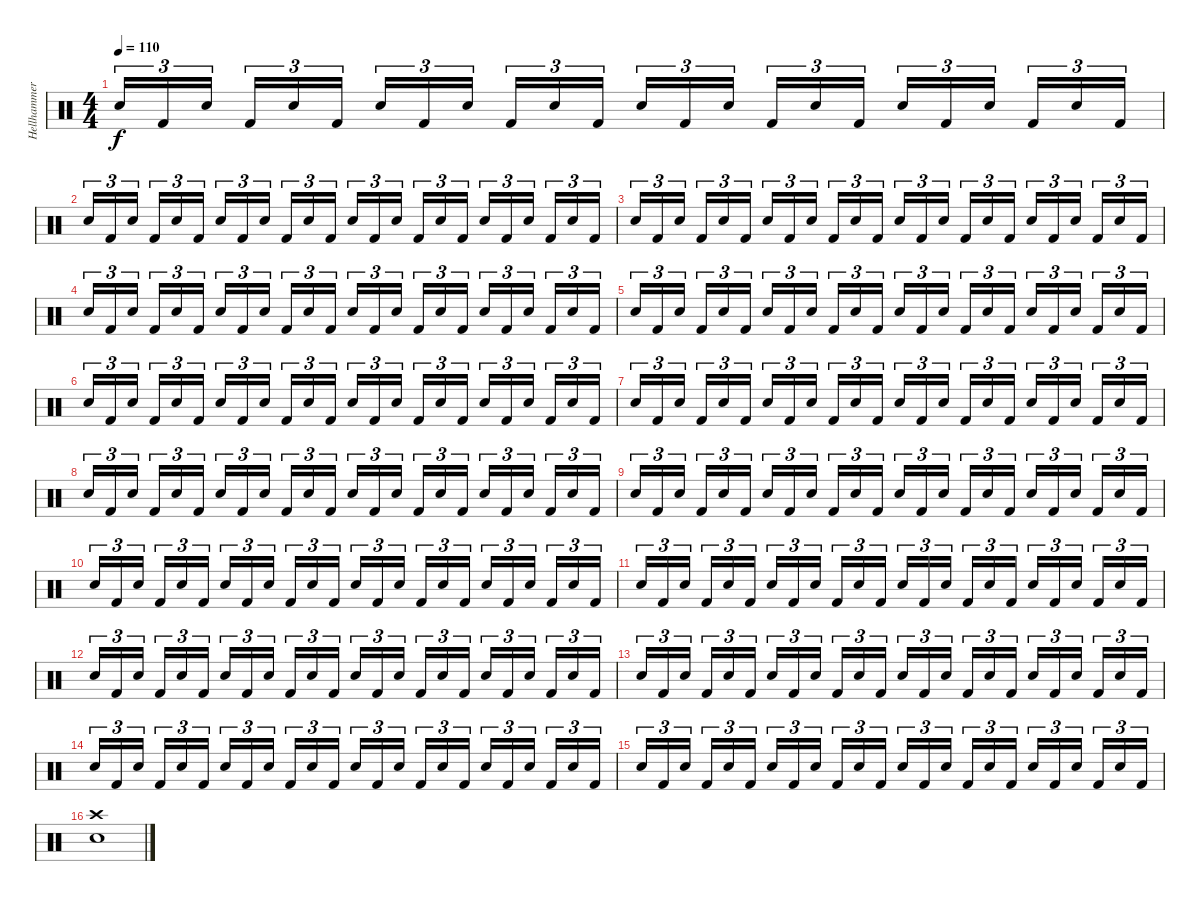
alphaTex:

\track ("Hellhammer" "Hellhammer") {instrument percussion}
\staff {score}
\articulation defaults
\ts (4 4)
\tempo 110
\clef neutral
\ks c "Electric Snare (hit)".16{tu (3 2) dy f} "Kick (hit) 2".16{tu (3 2)} "Electric Snare (hit)".16{tu (3 2)} "Kick (hit) 2".16{tu (3 2)} "Electric Snare (hit)".16{tu (3 2)} "Kick (hit) 2".16{tu (3 2)} "Electric Snare (hit)".16{tu (3 2)} "Kick (hit) 2".16{tu (3 2)} "Electric Snare (hit)".16{tu (3 2)} "Kick (hit) 2".16{tu (3 2)} "Electric Snare (hit)".16{tu (3 2)} "Kick (hit) 2".16{tu (3 2)} "Electric Snare (hit)".16{tu (3 2)} "Kick (hit) 2".16{tu (3 2)} "Electric Snare (hit)".16{tu (3 2)} "Kick (hit) 2".16{tu (3 2)} "Electric Snare (hit)".16{tu (3 2)} "Kick (hit) 2".16{tu (3 2)} "Electric Snare (hit)".16{tu (3 2)} "Kick (hit) 2".16{tu (3 2)} "Electric Snare (hit)".16{tu (3 2)} "Kick (hit) 2".16{tu (3 2)} "Electric Snare (hit)".16{tu (3 2)} "Kick (hit) 2".16{tu (3 2)}
|
"Electric Snare (hit)".16{tu (3 2)} "Kick (hit) 2".16{tu (3 2)} "Electric Snare (hit)".16{tu (3 2)} "Kick (hit) 2".16{tu (3 2)} "Electric Snare (hit)".16{tu (3 2)} "Kick (hit) 2".16{tu (3 2)} "Electric Snare (hit)".16{tu (3 2)} "Kick (hit) 2".16{tu (3 2)} "Electric Snare (hit)".16{tu (3 2)} "Kick (hit) 2".16{tu (3 2)} "Electric Snare (hit)".16{tu (3 2)} "Kick (hit) 2".16{tu (3 2)} "Electric Snare (hit)".16{tu (3 2)} "Kick (hit) 2".16{tu (3 2)} "Electric Snare (hit)".16{tu (3 2)} "Kick (hit) 2".16{tu (3 2)} "Electric Snare (hit)".16{tu (3 2)} "Kick (hit) 2".16{tu (3 2)} "Electric Snare (hit)".16{tu (3 2)} "Kick (hit) 2".16{tu (3 2)} "Electric Snare (hit)".16{tu (3 2)} "Kick (hit) 2".16{tu (3 2)} "Electric Snare (hit)".16{tu (3 2)} "Kick (hit) 2".16{tu (3 2)} |
"Electric Snare (hit)".16{tu (3 2)} "Kick (hit) 2".16{tu (3 2)} "Electric Snare (hit)".16{tu (3 2)} "Kick (hit) 2".16{tu (3 2)} "Electric Snare (hit)".16{tu (3 2)} "Kick (hit) 2".16{tu (3 2)} "Electric Snare (hit)".16{tu (3 2)} "Kick (hit) 2".16{tu (3 2)} "Electric Snare (hit)".16{tu (3 2)} "Kick (hit) 2".16{tu (3 2)} "Electric Snare (hit)".16{tu (3 2)} "Kick (hit) 2".16{tu (3 2)} "Electric Snare (hit)".16{tu (3 2)} "Kick (hit) 2".16{tu (3 2)} "Electric Snare (hit)".16{tu (3 2)} "Kick (hit) 2".16{tu (3 2)} "Electric Snare (hit)".16{tu (3 2)} "Kick (hit) 2".16{tu (3 2)} "Electric Snare (hit)".16{tu (3 2)} "Kick (hit) 2".16{tu (3 2)} "Electric Snare (hit)".16{tu (3 2)} "Kick (hit) 2".16{tu (3 2)} "Electric Snare (hit)".16{tu (3 2)} "Kick (hit) 2".16{tu (3 2)} |
"Electric Snare (hit)".16{tu (3 2)} "Kick (hit) 2".16{tu (3 2)} "Electric Snare (hit)".16{tu (3 2)} "Kick (hit) 2".16{tu (3 2)} "Electric Snare (hit)".16{tu (3 2)} "Kick (hit) 2".16{tu (3 2)} "Electric Snare (hit)".16{tu (3 2)} "Kick (hit) 2".16{tu (3 2)} "Electric Snare (hit)".16{tu (3 2)} "Kick (hit) 2".16{tu (3 2)} "Electric Snare (hit)".16{tu (3 2)} "Kick (hit) 2".16{tu (3 2)} "Electric Snare (hit)".16{tu (3 2)} "Kick (hit) 2".16{tu (3 2)} "Electric Snare (hit)".16{tu (3 2)} "Kick (hit) 2".16{tu (3 2)} "Electric Snare (hit)".16{tu (3 2)} "Kick (hit) 2".16{tu (3 2)} "Electric Snare (hit)".16{tu (3 2)} "Kick (hit) 2".16{tu (3 2)} "Electric Snare (hit)".16{tu (3 2)} "Kick (hit) 2".16{tu (3 2)} "Electric Snare (hit)".16{tu (3 2)} "Kick (hit) 2".16{tu (3 2)} |
"Electric Snare (hit)".16{tu (3 2)} "Kick (hit) 2".16{tu (3 2)} "Electric Snare (hit)".16{tu (3 2)} "Kick (hit) 2".16{tu (3 2)} "Electric Snare (hit)".16{tu (3 2)} "Kick (hit) 2".16{tu (3 2)} "Electric Snare (hit)".16{tu (3 2)} "Kick (hit) 2".16{tu (3 2)} "Electric Snare (hit)".16{tu (3 2)} "Kick (hit) 2".16{tu (3 2)} "Electric Snare (hit)".16{tu (3 2)} "Kick (hit) 2".16{tu (3 2)} "Electric Snare (hit)".16{tu (3 2)} "Kick (hit) 2".16{tu (3 2)} "Electric Snare (hit)".16{tu (3 2)} "Kick (hit) 2".16{tu (3 2)} "Electric Snare (hit)".16{tu (3 2)} "Kick (hit) 2".16{tu (3 2)} "Electric Snare (hit)".16{tu (3 2)} "Kick (hit) 2".16{tu (3 2)} "Electric Snare (hit)".16{tu (3 2)} "Kick (hit) 2".16{tu (3 2)} "Electric Snare (hit)".16{tu (3 2)} "Kick (hit) 2".16{tu (3 2)} |
"Electric Snare (hit)".16{tu (3 2)} "Kick (hit) 2".16{tu (3 2)} "Electric Snare (hit)".16{tu (3 2)} "Kick (hit) 2".16{tu (3 2)} "Electric Snare (hit)".16{tu (3 2)} "Kick (hit) 2".16{tu (3 2)} "Electric Snare (hit)".16{tu (3 2)} "Kick (hit) 2".16{tu (3 2)} "Electric Snare (hit)".16{tu (3 2)} "Kick (hit) 2".16{tu (3 2)} "Electric Snare (hit)".16{tu (3 2)} "Kick (hit) 2".16{tu (3 2)} "Electric Snare (hit)".16{tu (3 2)} "Kick (hit) 2".16{tu (3 2)} "Electric Snare (hit)".16{tu (3 2)} "Kick (hit) 2".16{tu (3 2)} "Electric Snare (hit)".16{tu (3 2)} "Kick (hit) 2".16{tu (3 2)} "Electric Snare (hit)".16{tu (3 2)} "Kick (hit) 2".16{tu (3 2)} "Electric Snare (hit)".16{tu (3 2)} "Kick (hit) 2".16{tu (3 2)} "Electric Snare (hit)".16{tu (3 2)} "Kick (hit) 2".16{tu (3 2)} |
"Electric Snare (hit)".16{tu (3 2)} "Kick (hit) 2".16{tu (3 2)} "Electric Snare (hit)".16{tu (3 2)} "Kick (hit) 2".16{tu (3 2)} "Electric Snare (hit)".16{tu (3 2)} "Kick (hit) 2".16{tu (3 2)} "Electric Snare (hit)".16{tu (3 2)} "Kick (hit) 2".16{tu (3 2)} "Electric Snare (hit)".16{tu (3 2)} "Kick (hit) 2".16{tu (3 2)} "Electric Snare (hit)".16{tu (3 2)} "Kick (hit) 2".16{tu (3 2)} "Electric Snare (hit)".16{tu (3 2)} "Kick (hit) 2".16{tu (3 2)} "Electric Snare (hit)".16{tu (3 2)} "Kick (hit) 2".16{tu (3 2)} "Electric Snare (hit)".16{tu (3 2)} "Kick (hit) 2".16{tu (3 2)} "Electric Snare (hit)".16{tu (3 2)} "Kick (hit) 2".16{tu (3 2)} "Electric Snare (hit)".16{tu (3 2)} "Kick (hit) 2".16{tu (3 2)} "Electric Snare (hit)".16{tu (3 2)} "Kick (hit) 2".16{tu (3 2)} |
"Electric Snare (hit)".16{tu (3 2)} "Kick (hit) 2".16{tu (3 2)} "Electric Snare (hit)".16{tu (3 2)} "Kick (hit) 2".16{tu (3 2)} "Electric Snare (hit)".16{tu (3 2)} "Kick (hit) 2".16{tu (3 2)} "Electric Snare (hit)".16{tu (3 2)} "Kick (hit) 2".16{tu (3 2)} "Electric Snare (hit)".16{tu (3 2)} "Kick (hit) 2".16{tu (3 2)} "Electric Snare (hit)".16{tu (3 2)} "Kick (hit) 2".16{tu (3 2)} "Electric Snare (hit)".16{tu (3 2)} "Kick (hit) 2".16{tu (3 2)} "Electric Snare (hit)".16{tu (3 2)} "Kick (hit) 2".16{tu (3 2)} "Electric Snare (hit)".16{tu (3 2)} "Kick (hit) 2".16{tu (3 2)} "Electric Snare (hit)".16{tu (3 2)} "Kick (hit) 2".16{tu (3 2)} "Electric Snare (hit)".16{tu (3 2)} "Kick (hit) 2".16{tu (3 2)} "Electric Snare (hit)".16{tu (3 2)} "Kick (hit) 2".16{tu (3 2)} |
"Electric Snare (hit)".16{tu (3 2)} "Kick (hit) 2".16{tu (3 2)} "Electric Snare (hit)".16{tu (3 2)} "Kick (hit) 2".16{tu (3 2)} "Electric Snare (hit)".16{tu (3 2)} "Kick (hit) 2".16{tu (3 2)} "Electric Snare (hit)".16{tu (3 2)} "Kick (hit) 2".16{tu (3 2)} "Electric Snare (hit)".16{tu (3 2)} "Kick (hit) 2".16{tu (3 2)} "Electric Snare (hit)".16{tu (3 2)} "Kick (hit) 2".16{tu (3 2)} "Electric Snare (hit)".16{tu (3 2)} "Kick (hit) 2".16{tu (3 2)} "Electric Snare (hit)".16{tu (3 2)} "Kick (hit) 2".16{tu (3 2)} "Electric Snare (hit)".16{tu (3 2)} "Kick (hit) 2".16{tu (3 2)} "Electric Snare (hit)".16{tu (3 2)} "Kick (hit) 2".16{tu (3 2)} "Electric Snare (hit)".16{tu (3 2)} "Kick (hit) 2".16{tu (3 2)} "Electric Snare (hit)".16{tu (3 2)} "Kick (hit) 2".16{tu (3 2)} |
"Electric Snare (hit)".16{tu (3 2)} "Kick (hit) 2".16{tu (3 2)} "Electric Snare (hit)".16{tu (3 2)} "Kick (hit) 2".16{tu (3 2)} "Electric Snare (hit)".16{tu (3 2)} "Kick (hit) 2".16{tu (3 2)} "Electric Snare (hit)".16{tu (3 2)} "Kick (hit) 2".16{tu (3 2)} "Electric Snare (hit)".16{tu (3 2)} "Kick (hit) 2".16{tu (3 2)} "Electric Snare (hit)".16{tu (3 2)} "Kick (hit) 2".16{tu (3 2)} "Electric Snare (hit)".16{tu (3 2)} "Kick (hit) 2".16{tu (3 2)} "Electric Snare (hit)".16{tu (3 2)} "Kick (hit) 2".16{tu (3 2)} "Electric Snare (hit)".16{tu (3 2)} "Kick (hit) 2".16{tu (3 2)} "Electric Snare (hit)".16{tu (3 2)} "Kick (hit) 2".16{tu (3 2)} "Electric Snare (hit)".16{tu (3 2)} "Kick (hit) 2".16{tu (3 2)} "Electric Snare (hit)".16{tu (3 2)} "Kick (hit) 2".16{tu (3 2)} |
"Electric Snare (hit)".16{tu (3 2)} "Kick (hit) 2".16{tu (3 2)} "Electric Snare (hit)".16{tu (3 2)} "Kick (hit) 2".16{tu (3 2)} "Electric Snare (hit)".16{tu (3 2)} "Kick (hit) 2".16{tu (3 2)} "Electric Snare (hit)".16{tu (3 2)} "Kick (hit) 2".16{tu (3 2)} "Electric Snare (hit)".16{tu (3 2)} "Kick (hit) 2".16{tu (3 2)} "Electric Snare (hit)".16{tu (3 2)} "Kick (hit) 2".16{tu (3 2)} "Electric Snare (hit)".16{tu (3 2)} "Kick (hit) 2".16{tu (3 2)} "Electric Snare (hit)".16{tu (3 2)} "Kick (hit) 2".16{tu (3 2)} "Electric Snare (hit)".16{tu (3 2)} "Kick (hit) 2".16{tu (3 2)} "Electric Snare (hit)".16{tu (3 2)} "Kick (hit) 2".16{tu (3 2)} "Electric Snare (hit)".16{tu (3 2)} "Kick (hit) 2".16{tu (3 2)} "Electric Snare (hit)".16{tu (3 2)} "Kick (hit) 2".16{tu (3 2)} |
"Electric Snare (hit)".16{tu (3 2)} "Kick (hit) 2".16{tu (3 2)} "Electric Snare (hit)".16{tu (3 2)} "Kick (hit) 2".16{tu (3 2)} "Electric Snare (hit)".16{tu (3 2)} "Kick (hit) 2".16{tu (3 2)} "Electric Snare (hit)".16{tu (3 2)} "Kick (hit) 2".16{tu (3 2)} "Electric Snare (hit)".16{tu (3 2)} "Kick (hit) 2".16{tu (3 2)} "Electric Snare (hit)".16{tu (3 2)} "Kick (hit) 2".16{tu (3 2)} "Electric Snare (hit)".16{tu (3 2)} "Kick (hit) 2".16{tu (3 2)} "Electric Snare (hit)".16{tu (3 2)} "Kick (hit) 2".16{tu (3 2)} "Electric Snare (hit)".16{tu (3 2)} "Kick (hit) 2".16{tu (3 2)} "Electric Snare (hit)".16{tu (3 2)} "Kick (hit) 2".16{tu (3 2)} "Electric Snare (hit)".16{tu (3 2)} "Kick (hit) 2".16{tu (3 2)} "Electric Snare (hit)".16{tu (3 2)} "Kick (hit) 2".16{tu (3 2)} |
"Electric Snare (hit)".16{tu (3 2)} "Kick (hit) 2".16{tu (3 2)} "Electric Snare (hit)".16{tu (3 2)} "Kick (hit) 2".16{tu (3 2)} "Electric Snare (hit)".16{tu (3 2)} "Kick (hit) 2".16{tu (3 2)} "Electric Snare (hit)".16{tu (3 2)} "Kick (hit) 2".16{tu (3 2)} "Electric Snare (hit)".16{tu (3 2)} "Kick (hit) 2".16{tu (3 2)} "Electric Snare (hit)".16{tu (3 2)} "Kick (hit) 2".16{tu (3 2)} "Electric Snare (hit)".16{tu (3 2)} "Kick (hit) 2".16{tu (3 2)} "Electric Snare (hit)".16{tu (3 2)} "Kick (hit) 2".16{tu (3 2)} "Electric Snare (hit)".16{tu (3 2)} "Kick (hit) 2".16{tu (3 2)} "Electric Snare (hit)".16{tu (3 2)} "Kick (hit) 2".16{tu (3 2)} "Electric Snare (hit)".16{tu (3 2)} "Kick (hit) 2".16{tu (3 2)} "Electric Snare (hit)".16{tu (3 2)} "Kick (hit) 2".16{tu (3 2)} |
"Electric Snare (hit)".16{tu (3 2)} "Kick (hit) 2".16{tu (3 2)} "Electric Snare (hit)".16{tu (3 2)} "Kick (hit) 2".16{tu (3 2)} "Electric Snare (hit)".16{tu (3 2)} "Kick (hit) 2".16{tu (3 2)} "Electric Snare (hit)".16{tu (3 2)} "Kick (hit) 2".16{tu (3 2)} "Electric Snare (hit)".16{tu (3 2)} "Kick (hit) 2".16{tu (3 2)} "Electric Snare (hit)".16{tu (3 2)} "Kick (hit) 2".16{tu (3 2)} "Electric Snare (hit)".16{tu (3 2)} "Kick (hit) 2".16{tu (3 2)} "Electric Snare (hit)".16{tu (3 2)} "Kick (hit) 2".16{tu (3 2)} "Electric Snare (hit)".16{tu (3 2)} "Kick (hit) 2".16{tu (3 2)} "Electric Snare (hit)".16{tu (3 2)} "Kick (hit) 2".16{tu (3 2)} "Electric Snare (hit)".16{tu (3 2)} "Kick (hit) 2".16{tu (3 2)} "Electric Snare (hit)".16{tu (3 2)} "Kick (hit) 2".16{tu (3 2)} |
"Electric Snare (hit)".16{tu (3 2)} "Kick (hit) 2".16{tu (3 2)} "Electric Snare (hit)".16{tu (3 2)} "Kick (hit) 2".16{tu (3 2)} "Electric Snare (hit)".16{tu (3 2)} "Kick (hit) 2".16{tu (3 2)} "Electric Snare (hit)".16{tu (3 2)} "Kick (hit) 2".16{tu (3 2)} "Electric Snare (hit)".16{tu (3 2)} "Kick (hit) 2".16{tu (3 2)} "Electric Snare (hit)".16{tu (3 2)} "Kick (hit) 2".16{tu (3 2)} "Electric Snare (hit)".16{tu (3 2)} "Kick (hit) 2".16{tu (3 2)} "Electric Snare (hit)".16{tu (3 2)} "Kick (hit) 2".16{tu (3 2)} "Electric Snare (hit)".16{tu (3 2)} "Kick (hit) 2".16{tu (3 2)} "Electric Snare (hit)".16{tu (3 2)} "Kick (hit) 2".16{tu (3 2)} "Electric Snare (hit)".16{tu (3 2)} "Kick (hit) 2".16{tu (3 2)} "Electric Snare (hit)".16{tu (3 2)} "Kick (hit) 2".16{tu (3 2)} |
("Crash high (hit)" "Electric Snare (hit)").1
